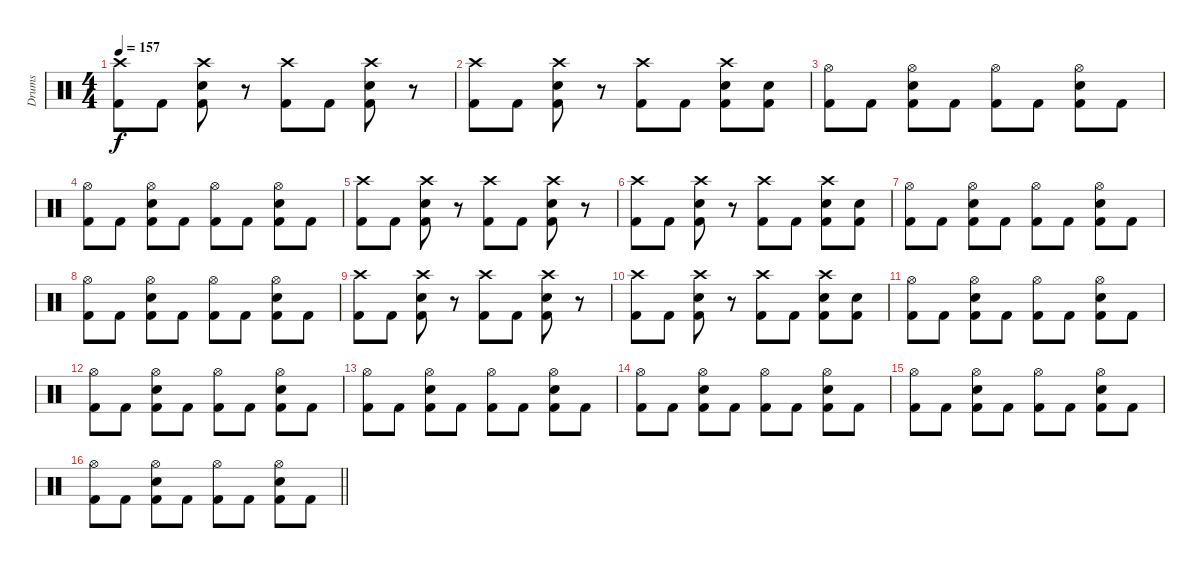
\track ("Drums" "Drums") {instrument percussion}
\staff {score}
\articulation defaults
\ts (4 4)
\tempo 157
\clef neutral
\ks c
("Crash high (hit)" "Kick (hit) 2").8{dy f} "Kick (hit) 2".8 ("Crash high (hit)" "Electric Snare (hit)" "Kick (hit) 2").8 r.8 ("Crash high (hit)" "Kick (hit) 2").8 "Kick (hit) 2".8 ("Crash high (hit)" "Electric Snare (hit)" "Kick (hit) 2").8 r.8 |
("Crash high (hit)" "Kick (hit) 2").8 "Kick (hit) 2".8 ("Crash high (hit)" "Electric Snare (hit)" "Kick (hit) 2").8 r.8 ("Crash high (hit)" "Kick (hit) 2").8 "Kick (hit) 2".8 ("Crash high (hit)" "Electric Snare (hit)" "Kick (hit) 2").8 ("Electric Snare (hit)" "Kick (hit) 2").8 |
("Hi-Hat (open)" "Kick (hit) 2").8 "Kick (hit) 2".8 ("Hi-Hat (open)" "Electric Snare (hit)" "Kick (hit) 2").8 "Kick (hit) 2".8 ("Hi-Hat (open)" "Kick (hit) 2").8 "Kick (hit) 2".8 ("Hi-Hat (open)" "Kick (hit) 2" "Electric Snare (hit)").8 "Kick (hit) 2".8 |
("Hi-Hat (open)" "Kick (hit) 2").8 "Kick (hit) 2".8 ("Hi-Hat (open)" "Electric Snare (hit)" "Kick (hit) 2").8 "Kick (hit) 2".8 ("Hi-Hat (open)" "Kick (hit) 2").8 "Kick (hit) 2".8 ("Hi-Hat (open)" "Kick (hit) 2" "Electric Snare (hit)").8 "Kick (hit) 2".8 |
("Crash high (hit)" "Kick (hit) 2").8 "Kick (hit) 2".8 ("Crash high (hit)" "Electric Snare (hit)" "Kick (hit) 2").8 r.8 ("Crash high (hit)" "Kick (hit) 2").8 "Kick (hit) 2".8 ("Crash high (hit)" "Electric Snare (hit)" "Kick (hit) 2").8 r.8 |
("Crash high (hit)" "Kick (hit) 2").8 "Kick (hit) 2".8 ("Crash high (hit)" "Electric Snare (hit)" "Kick (hit) 2").8 r.8 ("Crash high (hit)" "Kick (hit) 2").8 "Kick (hit) 2".8 ("Crash high (hit)" "Electric Snare (hit)" "Kick (hit) 2").8 ("Electric Snare (hit)" "Kick (hit) 2").8 |
("Hi-Hat (open)" "Kick (hit) 2").8 "Kick (hit) 2".8 ("Hi-Hat (open)" "Electric Snare (hit)" "Kick (hit) 2").8 "Kick (hit) 2".8 ("Hi-Hat (open)" "Kick (hit) 2").8 "Kick (hit) 2".8 ("Hi-Hat (open)" "Kick (hit) 2" "Electric Snare (hit)").8 "Kick (hit) 2".8 |
("Hi-Hat (open)" "Kick (hit) 2").8 "Kick (hit) 2".8 ("Hi-Hat (open)" "Electric Snare (hit)" "Kick (hit) 2").8 "Kick (hit) 2".8 ("Hi-Hat (open)" "Kick (hit) 2").8 "Kick (hit) 2".8 ("Hi-Hat (open)" "Kick (hit) 2" "Electric Snare (hit)").8 "Kick (hit) 2".8 |
("Crash high (hit)" "Kick (hit) 2").8 "Kick (hit) 2".8 ("Crash high (hit)" "Electric Snare (hit)" "Kick (hit) 2").8 r.8 ("Crash high (hit)" "Kick (hit) 2").8 "Kick (hit) 2".8 ("Crash high (hit)" "Electric Snare (hit)" "Kick (hit) 2").8 r.8 |
("Crash high (hit)" "Kick (hit) 2").8 "Kick (hit) 2".8 ("Crash high (hit)" "Electric Snare (hit)" "Kick (hit) 2").8 r.8 ("Crash high (hit)" "Kick (hit) 2").8 "Kick (hit) 2".8 ("Crash high (hit)" "Electric Snare (hit)" "Kick (hit) 2").8 ("Electric Snare (hit)" "Kick (hit) 2").8 |
("Hi-Hat (open)" "Kick (hit) 2").8 "Kick (hit) 2".8 ("Hi-Hat (open)" "Electric Snare (hit)" "Kick (hit) 2").8 "Kick (hit) 2".8 ("Hi-Hat (open)" "Kick (hit) 2").8 "Kick (hit) 2".8 ("Hi-Hat (open)" "Kick (hit) 2" "Electric Snare (hit)").8 "Kick (hit) 2".8 |
("Hi-Hat (open)" "Kick (hit) 2").8 "Kick (hit) 2".8 ("Hi-Hat (open)" "Electric Snare (hit)" "Kick (hit) 2").8 "Kick (hit) 2".8 ("Hi-Hat (open)" "Kick (hit) 2").8 "Kick (hit) 2".8 ("Hi-Hat (open)" "Kick (hit) 2" "Electric Snare (hit)").8 "Kick (hit) 2".8 |
("Hi-Hat (open)" "Kick (hit) 2").8 "Kick (hit) 2".8 ("Hi-Hat (open)" "Electric Snare (hit)" "Kick (hit) 2").8 "Kick (hit) 2".8 ("Hi-Hat (open)" "Kick (hit) 2").8 "Kick (hit) 2".8 ("Hi-Hat (open)" "Kick (hit) 2" "Electric Snare (hit)").8 "Kick (hit) 2".8 |
("Hi-Hat (open)" "Kick (hit) 2").8 "Kick (hit) 2".8 ("Hi-Hat (open)" "Electric Snare (hit)" "Kick (hit) 2").8 "Kick (hit) 2".8 ("Hi-Hat (open)" "Kick (hit) 2").8 "Kick (hit) 2".8 ("Hi-Hat (open)" "Kick (hit) 2" "Electric Snare (hit)").8 "Kick (hit) 2".8 |
("Hi-Hat (open)" "Kick (hit) 2").8 "Kick (hit) 2".8 ("Hi-Hat (open)" "Electric Snare (hit)" "Kick (hit) 2").8 "Kick (hit) 2".8 ("Hi-Hat (open)" "Kick (hit) 2").8 "Kick (hit) 2".8 ("Hi-Hat (open)" "Kick (hit) 2" "Electric Snare (hit)").8 "Kick (hit) 2".8 |
\barLineRight lightlight
("Hi-Hat (open)" "Kick (hit) 2").8 "Kick (hit) 2".8 ("Hi-Hat (open)" "Electric Snare (hit)" "Kick (hit) 2").8 "Kick (hit) 2".8 ("Hi-Hat (open)" "Kick (hit) 2").8 "Kick (hit) 2".8 ("Hi-Hat (open)" "Kick (hit) 2" "Electric Snare (hit)").8 "Kick (hit) 2".8
